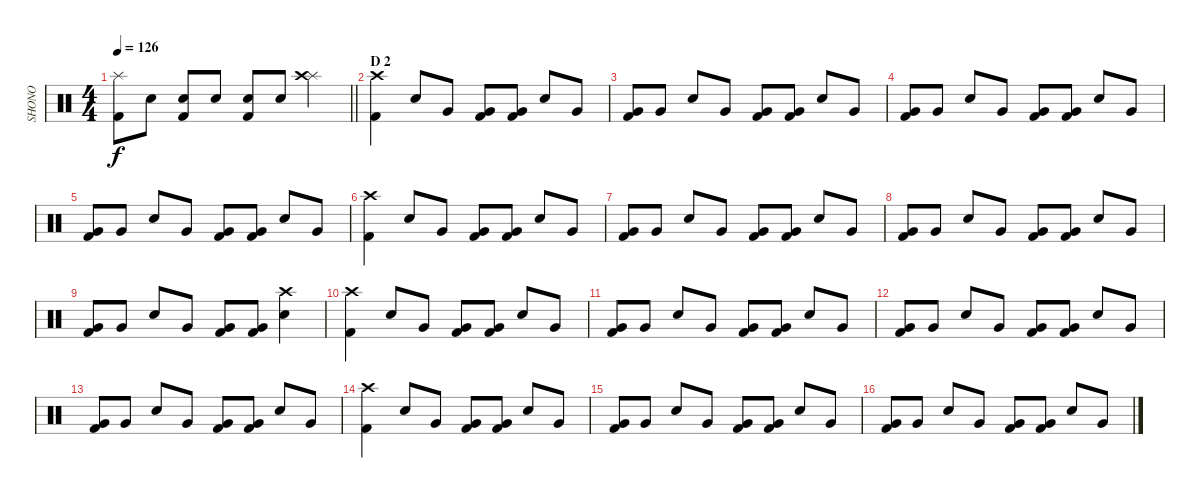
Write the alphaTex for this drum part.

\track ("SHONO" "SHONO") {instrument percussion}
\staff {score}
\articulation defaults
\ts (4 4)
\tempo 126
\clef neutral
\barLineRight lightlight
\ks c
("Splash (hit)" "Kick (hit) 2").8{dy f} "Snare (hit) 2".8 ("Kick (hit) 2" "Snare (hit) 2").8 "Snare (hit) 2".8 ("Kick (hit) 2" "Snare (hit) 2").8 "Snare (hit) 2".8 ("Splash (hit)" "Crash high (hit)").4 |
\section ("" "D 2")
("Crash high (hit)" "Kick (hit) 2").4 "Snare (hit) 2".8 "Very Low Tom (hit)".8 ("Very Low Tom (hit)" "Kick (hit) 2").8 ("Very Low Tom (hit)" "Kick (hit) 2").8 "Snare (hit) 2".8 "Very Low Tom (hit)".8 |
("Very Low Tom (hit)" "Kick (hit) 2").8 "Very Low Tom (hit)".8 "Snare (hit) 2".8 "Very Low Tom (hit)".8 ("Very Low Tom (hit)" "Kick (hit) 2").8 ("Very Low Tom (hit)" "Kick (hit) 2").8 "Snare (hit) 2".8 "Very Low Tom (hit)".8 |
("Very Low Tom (hit)" "Kick (hit) 2").8 "Very Low Tom (hit)".8 "Snare (hit) 2".8 "Very Low Tom (hit)".8 ("Very Low Tom (hit)" "Kick (hit) 2").8 ("Very Low Tom (hit)" "Kick (hit) 2").8 "Snare (hit) 2".8 "Very Low Tom (hit)".8 |
("Very Low Tom (hit)" "Kick (hit) 2").8 "Very Low Tom (hit)".8 "Snare (hit) 2".8 "Very Low Tom (hit)".8 ("Very Low Tom (hit)" "Kick (hit) 2").8 ("Very Low Tom (hit)" "Kick (hit) 2").8 "Snare (hit) 2".8 "Very Low Tom (hit)".8 |
("Crash high (hit)" "Kick (hit) 2").4 "Snare (hit) 2".8 "Very Low Tom (hit)".8 ("Very Low Tom (hit)" "Kick (hit) 2").8 ("Very Low Tom (hit)" "Kick (hit) 2").8 "Snare (hit) 2".8 "Very Low Tom (hit)".8 |
("Very Low Tom (hit)" "Kick (hit) 2").8 "Very Low Tom (hit)".8 "Snare (hit) 2".8 "Very Low Tom (hit)".8 ("Very Low Tom (hit)" "Kick (hit) 2").8 ("Very Low Tom (hit)" "Kick (hit) 2").8 "Snare (hit) 2".8 "Very Low Tom (hit)".8 |
("Very Low Tom (hit)" "Kick (hit) 2").8 "Very Low Tom (hit)".8 "Snare (hit) 2".8 "Very Low Tom (hit)".8 ("Very Low Tom (hit)" "Kick (hit) 2").8 ("Very Low Tom (hit)" "Kick (hit) 2").8 "Snare (hit) 2".8 "Very Low Tom (hit)".8 |
("Very Low Tom (hit)" "Kick (hit) 2").8 "Very Low Tom (hit)".8 "Snare (hit) 2".8 "Very Low Tom (hit)".8 ("Very Low Tom (hit)" "Kick (hit) 2").8 ("Very Low Tom (hit)" "Kick (hit) 2").8 ("Crash high (hit)" "Snare (hit) 2").4 |
("Crash high (hit)" "Kick (hit) 2").4 "Snare (hit) 2".8 "Very Low Tom (hit)".8 ("Very Low Tom (hit)" "Kick (hit) 2").8 ("Very Low Tom (hit)" "Kick (hit) 2").8 "Snare (hit) 2".8 "Very Low Tom (hit)".8 |
("Very Low Tom (hit)" "Kick (hit) 2").8 "Very Low Tom (hit)".8 "Snare (hit) 2".8 "Very Low Tom (hit)".8 ("Very Low Tom (hit)" "Kick (hit) 2").8 ("Very Low Tom (hit)" "Kick (hit) 2").8 "Snare (hit) 2".8 "Very Low Tom (hit)".8 |
("Very Low Tom (hit)" "Kick (hit) 2").8 "Very Low Tom (hit)".8 "Snare (hit) 2".8 "Very Low Tom (hit)".8 ("Very Low Tom (hit)" "Kick (hit) 2").8 ("Very Low Tom (hit)" "Kick (hit) 2").8 "Snare (hit) 2".8 "Very Low Tom (hit)".8 |
("Very Low Tom (hit)" "Kick (hit) 2").8 "Very Low Tom (hit)".8 "Snare (hit) 2".8 "Very Low Tom (hit)".8 ("Very Low Tom (hit)" "Kick (hit) 2").8 ("Very Low Tom (hit)" "Kick (hit) 2").8 "Snare (hit) 2".8 "Very Low Tom (hit)".8 |
("Crash high (hit)" "Kick (hit) 2").4 "Snare (hit) 2".8 "Very Low Tom (hit)".8 ("Very Low Tom (hit)" "Kick (hit) 2").8 ("Very Low Tom (hit)" "Kick (hit) 2").8 "Snare (hit) 2".8 "Very Low Tom (hit)".8 |
("Very Low Tom (hit)" "Kick (hit) 2").8 "Very Low Tom (hit)".8 "Snare (hit) 2".8 "Very Low Tom (hit)".8 ("Very Low Tom (hit)" "Kick (hit) 2").8 ("Very Low Tom (hit)" "Kick (hit) 2").8 "Snare (hit) 2".8 "Very Low Tom (hit)".8 |
("Very Low Tom (hit)" "Kick (hit) 2").8 "Very Low Tom (hit)".8 "Snare (hit) 2".8 "Very Low Tom (hit)".8 ("Very Low Tom (hit)" "Kick (hit) 2").8 ("Very Low Tom (hit)" "Kick (hit) 2").8 "Snare (hit) 2".8 "Very Low Tom (hit)".8
